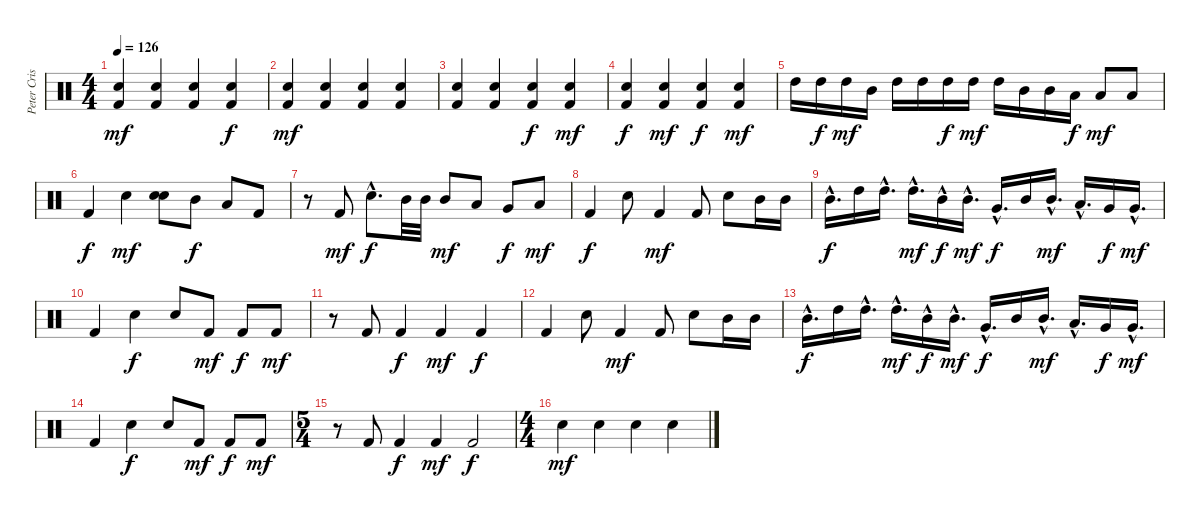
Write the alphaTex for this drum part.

\track ("Peter Criss" "Peter Cris") {instrument percussion}
\staff {score}
\articulation defaults
\ts (4 4)
\tempo 126
\clef neutral
\ks c
("Kick (hit) 2" "Electric Snare (hit)").4{dy mf} ("Kick (hit) 2" "Electric Snare (hit)").4 ("Kick (hit) 2" "Electric Snare (hit)").4 ("Kick (hit) 2" "Electric Snare (hit)").4{dy f} |
("Kick (hit) 2" "Electric Snare (hit)").4{dy mf} ("Kick (hit) 2" "Electric Snare (hit)").4 ("Kick (hit) 2" "Electric Snare (hit)").4 ("Kick (hit) 2" "Electric Snare (hit)").4 |
("Kick (hit) 2" "Electric Snare (hit)").4 ("Kick (hit) 2" "Electric Snare (hit)").4 ("Kick (hit) 2" "Electric Snare (hit)").4{dy f} ("Kick (hit) 2" "Electric Snare (hit)").4{dy mf} |
("Kick (hit) 2" "Electric Snare (hit)").4{dy f} ("Kick (hit) 2" "Electric Snare (hit)").4{dy mf} ("Kick (hit) 2" "Electric Snare (hit)").4{dy f} ("Kick (hit) 2" "Electric Snare (hit)").4{dy mf} |
"High Tom (hit)".16 "High Tom (hit)".16{dy f} "High Tom (hit)".16{dy mf} "Mid Tom (hit)".16 "High Tom (hit)".16 "High Tom (hit)".16 "High Tom (hit)".16{dy f} "High Tom (hit)".16{dy mf} "High Tom (hit)".16 "Mid Tom (hit)".16 "Mid Tom (hit)".16 "Low Tom (hit)".16{dy f} "Low Tom (hit)".8{dy mf} "Low Tom (hit)".8 |
"Kick (hit) 2".4{dy f} "Electric Snare (hit)".4{dy mf} ("Electric Snare (hit)" "Electric Snare (hit)").8 "Mid Tom (hit)".8{dy f} "Low Tom (hit)".8 "Kick (hit) 2".8 |
r.8 "Kick (hit) 2".8{dy mf} "Electric Snare (hit)"{hac}.8{d dy f} "Mid Tom (hit)".32 "Mid Tom (hit)".32 "Mid Tom (hit)".8{dy mf} "Low Tom (hit)".8 "Very Low Tom (hit)".8{dy f} "Low Floor Tom (hit)".8{dy mf} |
"Kick (hit) 2".4{dy f} "Electric Snare (hit)".8 "Kick (hit) 2".4{dy mf} "Kick (hit) 2".8 "Electric Snare (hit)".8 "Mid Tom (hit)".16 "Mid Tom (hit)".16 |
"Mid Tom (hit)"{hac}.16{d dy f} "High Tom (hit)".16 "High Tom (hit)"{hac}.16{d} "High Tom (hit)"{hac}.16{d dy mf} "Mid Tom (hit)"{hac}.16{dy f} "Mid Tom (hit)"{hac}.16{d dy mf} "Very Low Tom (hit)"{hac}.16{d dy f} "Mid Tom (hit)".16 "Mid Tom (hit)"{hac}.16{d dy mf} "Low Tom (hit)"{hac}.16{d} "Very Low Tom (hit)".16{dy f} "Very Low Tom (hit)"{hac}.16{d dy mf} |
"Kick (hit) 2".4 "Electric Snare (hit)".4{dy f} "Electric Snare (hit)".8 "Kick (hit) 2".8{dy mf} "Kick (hit) 2".8{dy f} "Kick (hit) 2".8{dy mf} |
r.8 "Kick (hit) 2".8 "Kick (hit) 2".4{dy f} "Kick (hit) 2".4{dy mf} "Kick (hit) 2".4{dy f} |
"Kick (hit) 2".4 "Electric Snare (hit)".8 "Kick (hit) 2".4{dy mf} "Kick (hit) 2".8 "Electric Snare (hit)".8 "Mid Tom (hit)".16 "Mid Tom (hit)".16 |
"Mid Tom (hit)"{hac}.16{d dy f} "High Tom (hit)".16 "High Tom (hit)"{hac}.16{d} "High Tom (hit)"{hac}.16{d dy mf} "Mid Tom (hit)"{hac}.16{dy f} "Mid Tom (hit)"{hac}.16{d dy mf} "Very Low Tom (hit)"{hac}.16{d dy f} "Mid Tom (hit)".16 "Mid Tom (hit)"{hac}.16{d dy mf} "Low Tom (hit)"{hac}.16{d} "Very Low Tom (hit)".16{dy f} "Very Low Tom (hit)"{hac}.16{d dy mf} |
"Kick (hit) 2".4 "Electric Snare (hit)".4{dy f} "Electric Snare (hit)".8 "Kick (hit) 2".8{dy mf} "Kick (hit) 2".8{dy f} "Kick (hit) 2".8{dy mf} |
\ts (5 4)
r.8 "Kick (hit) 2".8 "Kick (hit) 2".4{dy f} "Kick (hit) 2".4{dy mf} "Kick (hit) 2".2{dy f} |
\ts (4 4)
"Electric Snare (hit)".4{dy mf} "Electric Snare (hit)".4 "Electric Snare (hit)".4 "Electric Snare (hit)".4
